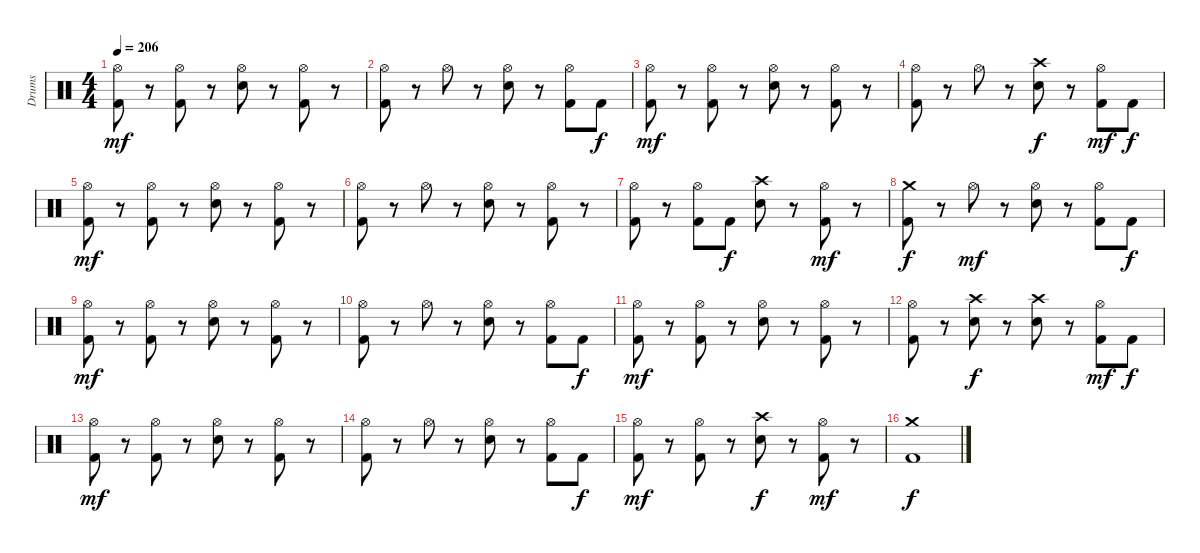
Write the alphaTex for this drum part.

\track ("Drums" "Drums") {instrument percussion}
\staff {score}
\articulation defaults
\ts (4 4)
\tempo 206
\clef neutral
\ks c
("Hi-Hat (open)" "Kick (hit) 2").8{dy mf} r.8 ("Hi-Hat (open)" "Kick (hit) 2").8 r.8 ("Hi-Hat (open)" "Snare (hit) 2").8 r.8 ("Hi-Hat (open)" "Kick (hit) 2").8 r.8 |
("Hi-Hat (open)" "Kick (hit) 2").8 r.8 "Hi-Hat (open)".8 r.8 ("Hi-Hat (open)" "Snare (hit) 2").8 r.8 ("Hi-Hat (open)" "Kick (hit) 2").8 "Kick (hit) 2".8{dy f} |
("Hi-Hat (open)" "Kick (hit) 2").8{dy mf} r.8 ("Hi-Hat (open)" "Kick (hit) 2").8 r.8 ("Hi-Hat (open)" "Snare (hit) 2").8 r.8 ("Hi-Hat (open)" "Kick (hit) 2").8 r.8 |
("Hi-Hat (open)" "Kick (hit) 2").8 r.8 "Hi-Hat (open)".8 r.8 ("Crash high (hit)" "Snare (hit) 2").8{dy f} r.8 ("Hi-Hat (open)" "Kick (hit) 2").8{dy mf} "Kick (hit) 2".8{dy f} |
("Hi-Hat (open)" "Kick (hit) 2").8{dy mf} r.8 ("Hi-Hat (open)" "Kick (hit) 2").8 r.8 ("Hi-Hat (open)" "Snare (hit) 2").8 r.8 ("Hi-Hat (open)" "Kick (hit) 2").8 r.8 |
("Hi-Hat (open)" "Kick (hit) 2").8 r.8 "Hi-Hat (open)".8 r.8 ("Hi-Hat (open)" "Snare (hit) 2").8 r.8 ("Hi-Hat (open)" "Kick (hit) 2").8 r.8 |
("Hi-Hat (open)" "Kick (hit) 2").8 r.8 ("Hi-Hat (open)" "Kick (hit) 2").8 "Kick (hit) 2".8{dy f} ("Crash high (hit)" "Snare (hit) 2").8 r.8 ("Hi-Hat (open)" "Kick (hit) 2").8{dy mf} r.8 |
("Crash medium (hit)" "Kick (hit) 2").8{dy f} r.8 "Hi-Hat (open)".8{dy mf} r.8 ("Hi-Hat (open)" "Snare (hit) 2").8 r.8 ("Hi-Hat (open)" "Kick (hit) 2").8 "Kick (hit) 2".8{dy f} |
("Hi-Hat (open)" "Kick (hit) 2").8{dy mf} r.8 ("Hi-Hat (open)" "Kick (hit) 2").8 r.8 ("Hi-Hat (open)" "Snare (hit) 2").8 r.8 ("Hi-Hat (open)" "Kick (hit) 2").8 r.8 |
("Hi-Hat (open)" "Kick (hit) 2").8 r.8 "Hi-Hat (open)".8 r.8 ("Hi-Hat (open)" "Snare (hit) 2").8 r.8 ("Hi-Hat (open)" "Kick (hit) 2").8 "Kick (hit) 2".8{dy f} |
("Hi-Hat (open)" "Kick (hit) 2").8{dy mf} r.8 ("Hi-Hat (open)" "Kick (hit) 2").8 r.8 ("Hi-Hat (open)" "Snare (hit) 2").8 r.8 ("Hi-Hat (open)" "Kick (hit) 2").8 r.8 |
("Hi-Hat (open)" "Kick (hit) 2").8 r.8 ("Crash high (hit)" "Snare (hit) 2").8{dy f} r.8 ("Crash high (hit)" "Snare (hit) 2").8 r.8 ("Hi-Hat (open)" "Kick (hit) 2").8{dy mf} "Kick (hit) 2".8{dy f} |
("Hi-Hat (open)" "Kick (hit) 2").8{dy mf} r.8 ("Hi-Hat (open)" "Kick (hit) 2").8 r.8 ("Hi-Hat (open)" "Snare (hit) 2").8 r.8 ("Hi-Hat (open)" "Kick (hit) 2").8 r.8 |
("Hi-Hat (open)" "Kick (hit) 2").8 r.8 "Hi-Hat (open)".8 r.8 ("Hi-Hat (open)" "Snare (hit) 2").8 r.8 ("Hi-Hat (open)" "Kick (hit) 2").8 "Kick (hit) 2".8{dy f} |
("Hi-Hat (open)" "Kick (hit) 2").8{dy mf} r.8 ("Hi-Hat (open)" "Kick (hit) 2").8 r.8 ("Crash high (hit)" "Snare (hit) 2").8{dy f} r.8 ("Hi-Hat (open)" "Kick (hit) 2").8{dy mf} r.8 |
("Crash medium (hit)" "Kick (hit) 2").1{dy f}
